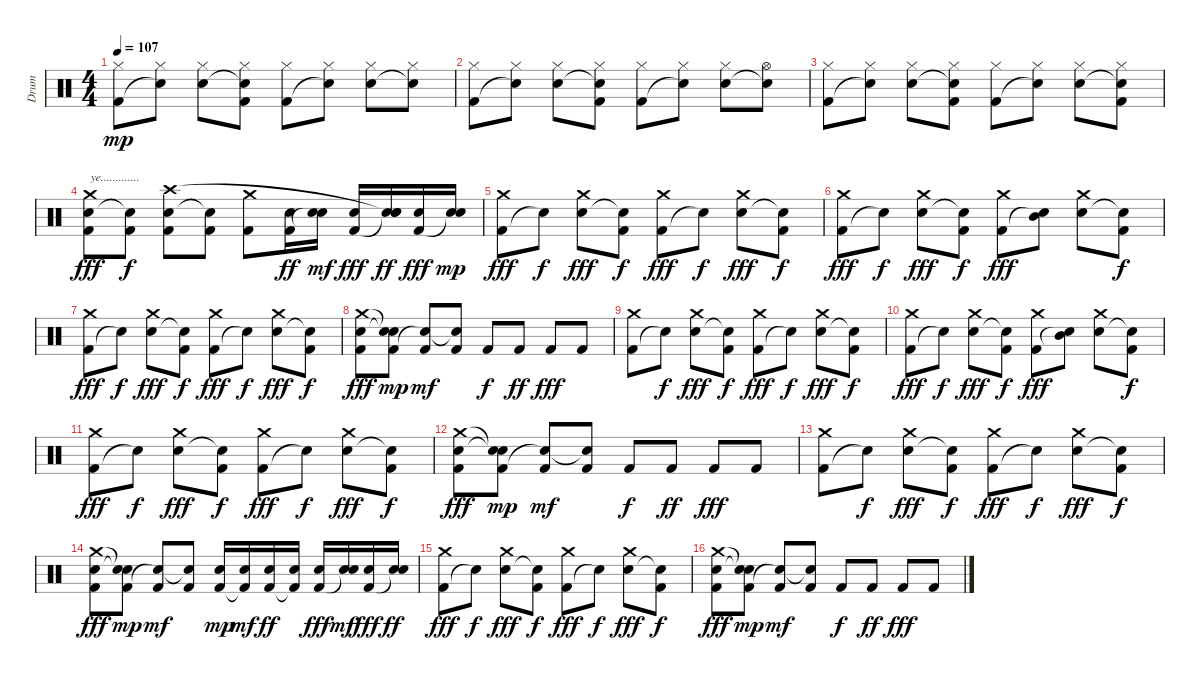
\track ("Drum" "Drum") {instrument percussion}
\staff {score}
\articulation defaults
\ts (4 4)
\tempo 107
\clef neutral
\ks c
("Kick (hit) 2" "Hi-Hat (closed)").8{dy mp} ("Snare (hit)"{t} "Hi-Hat (closed)").8 ("Electric Snare (hit)" "Hi-Hat (closed)").8{txt ""} ("Snare (hit)"{t} "Kick (hit) 2" "Hi-Hat (closed)").8 ("Kick (hit) 2" "Hi-Hat (closed)").8 ("Snare (hit)"{t} "Hi-Hat (closed)").8 ("Electric Snare (hit)" "Hi-Hat (closed)").8 ("Snare (hit)"{t} "Hi-Hat (closed)").8 |
("Kick (hit) 2" "Hi-Hat (closed)").8{txt ""} ("Snare (hit)"{t} "Hi-Hat (closed)").8 ("Electric Snare (hit)" "Hi-Hat (closed)").8 ("Snare (hit)"{t} "Kick (hit) 2" "Hi-Hat (closed)").8 ("Kick (hit) 2" "Hi-Hat (closed)").8 ("Snare (hit)"{t} "Hi-Hat (closed)").8 ("Electric Snare (hit)" "Hi-Hat (closed)").8 ("Snare (hit)"{t} "Hi-Hat (open)").8 |
("Kick (hit) 2" "Hi-Hat (closed)").8{txt ""} ("Snare (hit)"{t} "Hi-Hat (closed)").8 ("Electric Snare (hit)" "Hi-Hat (closed)").8 ("Snare (hit)"{t} "Kick (hit) 2" "Hi-Hat (closed)").8 ("Kick (hit) 2" "Hi-Hat (closed)").8 ("Snare (hit)"{t} "Hi-Hat (closed)").8 ("Electric Snare (hit)" "Hi-Hat (closed)").8 ("Snare (hit)"{t} "Kick (hit) 2" "Hi-Hat (closed)").8 |
("Electric Snare (hit)" "Kick (hit) 2" "Crash medium (hit)").8{txt "ye............." dy fff} ("Snare (hit)"{t} "Kick (hit) 2").8{dy f} ("Electric Snare (hit)" "Kick (hit) 2" "Crash high (hit)").8 ("Snare (hit)"{t} "Kick (hit) 2").8 ("Kick (hit) 2" "Crash medium (hit)").8 ("Electric Snare (hit)" "Kick (hit) 2").16{dy ff} ("Electric Snare (hit)" "Snare (hit)"{t}).16{dy mf} ("Electric Snare (hit)" "Kick (hit) 2").16{dy fff} ("Electric Snare (hit)" "Snare (hit)"{t} "Snare (hit)"{t}).16{dy ff} ("Electric Snare (hit)" "Kick (hit) 2").16{dy fff} ("Electric Snare (hit)" "Snare (hit)"{t}).16{dy mp} |
("Kick (hit) 2" "Crash medium (hit)").8{txt "" dy fff} "Snare (hit)"{t}.8{dy f} ("Electric Snare (hit)" "Crash medium (hit)").8{dy fff} ("Snare (hit)"{t} "Kick (hit) 2").8{dy f} ("Kick (hit) 2" "Crash medium (hit)").8{dy fff} "Snare (hit)"{t}.8{dy f} ("Electric Snare (hit)" "Crash medium (hit)").8{dy fff} ("Snare (hit)"{t} "Kick (hit) 2").8{dy f} |
("Kick (hit) 2" "Crash medium (hit)").8{txt "" dy fff} "Snare (hit)"{t}.8{dy f} ("Electric Snare (hit)" "Crash medium (hit)").8{dy fff} ("Snare (hit)"{t} "Kick (hit) 2").8{dy f} ("Kick (hit) 2" "Crash medium (hit)").8{dy fff} ("Snare (hit)"{t} "Mid Tom (hit)").8 ("Electric Snare (hit)" "Crash medium (hit)").8 ("Snare (hit)"{t} "Kick (hit) 2").8{dy f} |
("Kick (hit) 2" "Crash medium (hit)").8{txt "" dy fff} "Snare (hit)"{t}.8{dy f} ("Electric Snare (hit)" "Crash medium (hit)").8{dy fff} ("Snare (hit)"{t} "Kick (hit) 2").8{dy f} ("Kick (hit) 2" "Crash medium (hit)").8{dy fff} "Snare (hit)"{t}.8{dy f} ("Electric Snare (hit)" "Crash medium (hit)").8{dy fff} ("Snare (hit)"{t} "Kick (hit) 2").8{dy f} |
("Electric Snare (hit)" "Kick (hit) 2" "Crash medium (hit)").8{txt "" dy fff} ("Snare (hit)"{t} "Kick (hit) 2" "Snare (hit)"{t}).8{dy mp} ("Kick (hit) 2" "Snare (hit)"{t}).8{dy mf} ("Kick (hit) 2" "Snare (hit)"{t}).8 "Kick (hit) 2".8{dy f} "Kick (hit) 2".8{dy ff} "Kick (hit) 2".8{dy fff} "Kick (hit) 2".8 |
("Kick (hit) 2" "Crash medium (hit)").8{txt ""} "Snare (hit)"{t}.8{dy f} ("Electric Snare (hit)" "Crash medium (hit)").8{dy fff} ("Snare (hit)"{t} "Kick (hit) 2").8{dy f} ("Kick (hit) 2" "Crash medium (hit)").8{dy fff} "Snare (hit)"{t}.8{dy f} ("Electric Snare (hit)" "Crash medium (hit)").8{dy fff} ("Snare (hit)"{t} "Kick (hit) 2").8{dy f} |
("Kick (hit) 2" "Crash medium (hit)").8{txt "" dy fff} "Snare (hit)"{t}.8{dy f} ("Electric Snare (hit)" "Crash medium (hit)").8{dy fff} ("Snare (hit)"{t} "Kick (hit) 2").8{dy f} ("Kick (hit) 2" "Crash medium (hit)").8{dy fff} ("Snare (hit)"{t} "Mid Tom (hit)").8 ("Electric Snare (hit)" "Crash medium (hit)").8 ("Snare (hit)"{t} "Kick (hit) 2").8{dy f} |
("Kick (hit) 2" "Crash medium (hit)").8{txt "" dy fff} "Snare (hit)"{t}.8{dy f} ("Electric Snare (hit)" "Crash medium (hit)").8{dy fff} ("Snare (hit)"{t} "Kick (hit) 2").8{dy f} ("Kick (hit) 2" "Crash medium (hit)").8{dy fff} "Snare (hit)"{t}.8{dy f} ("Electric Snare (hit)" "Crash medium (hit)").8{dy fff} ("Snare (hit)"{t} "Kick (hit) 2").8{dy f} |
("Electric Snare (hit)" "Kick (hit) 2" "Crash medium (hit)").8{txt "" dy fff} ("Snare (hit)"{t} "Kick (hit) 2" "Snare (hit)"{t}).8{dy mp} ("Kick (hit) 2" "Snare (hit)"{t}).8{dy mf} ("Kick (hit) 2" "Snare (hit)"{t}).8 "Kick (hit) 2".8{dy f} "Kick (hit) 2".8{dy ff} "Kick (hit) 2".8{dy fff} "Kick (hit) 2".8 |
("Kick (hit) 2" "Crash medium (hit)").8 "Snare (hit)"{t}.8{dy f} ("Electric Snare (hit)" "Crash medium (hit)").8{dy fff} ("Snare (hit)"{t} "Kick (hit) 2").8{dy f} ("Kick (hit) 2" "Crash medium (hit)").8{dy fff} "Snare (hit)"{t}.8{dy f} ("Electric Snare (hit)" "Crash medium (hit)").8{dy fff} ("Snare (hit)"{t} "Kick (hit) 2").8{dy f} |
("Electric Snare (hit)" "Kick (hit) 2" "Crash medium (hit)").8{txt "" dy fff} ("Snare (hit)"{t} "Kick (hit) 2" "Snare (hit)"{t}).8{dy mp} ("Kick (hit) 2" "Snare (hit)"{t}).8{dy mf} ("Kick (hit) 2" "Snare (hit)"{t}).8 ("Electric Snare (hit)" "Kick (hit) 2").16{dy mp} ("Electric Snare (hit)" "Kick (hit) 2"{t}).16{dy mf} ("Electric Snare (hit)" "Kick (hit) 2").16{dy ff} ("Electric Snare (hit)" "Kick (hit) 2"{t}).16 ("Electric Snare (hit)" "Kick (hit) 2").16{dy fff} ("Electric Snare (hit)" "Snare (hit)"{t}).16{dy mf} ("Electric Snare (hit)" "Kick (hit) 2").16{dy fff} ("Electric Snare (hit)" "Snare (hit)"{t}).16{dy ff} |
("Kick (hit) 2" "Crash medium (hit)").8{dy fff} "Snare (hit)"{t}.8{dy f} ("Electric Snare (hit)" "Crash medium (hit)").8{dy fff} ("Snare (hit)"{t} "Kick (hit) 2").8{dy f} ("Kick (hit) 2" "Crash medium (hit)").8{dy fff} "Snare (hit)"{t}.8{dy f} ("Electric Snare (hit)" "Crash medium (hit)").8{dy fff} ("Snare (hit)"{t} "Kick (hit) 2").8{dy f} |
("Electric Snare (hit)" "Kick (hit) 2" "Crash medium (hit)").8{txt "" dy fff} ("Snare (hit)"{t} "Kick (hit) 2" "Snare (hit)"{t}).8{dy mp} ("Kick (hit) 2" "Snare (hit)"{t}).8{dy mf} ("Kick (hit) 2" "Snare (hit)"{t}).8 "Kick (hit) 2".8{dy f} "Kick (hit) 2".8{dy ff} "Kick (hit) 2".8{dy fff} "Kick (hit) 2".8
